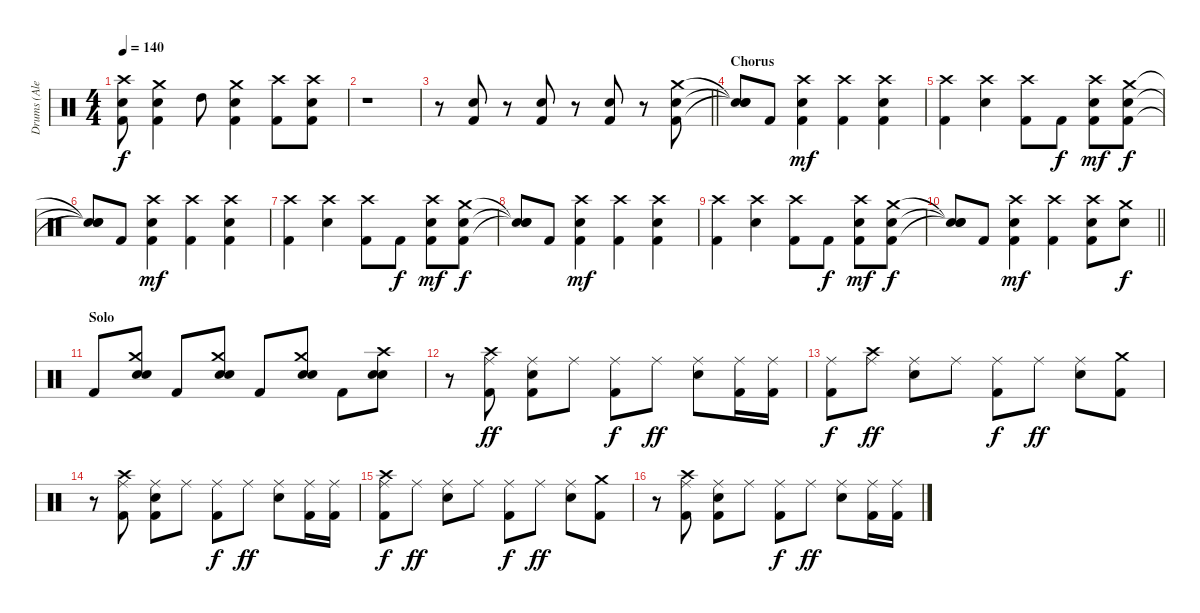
\track ("Drums (Alex Van Halen)" "Drums (Ale") {instrument percussion}
\staff {score}
\articulation defaults
\ts (4 4)
\tempo 140
\clef neutral
\ks c
("Crash high (hit)" "Snare (hit) 2" "Kick (hit) 2").8{dy f} ("Crash medium (hit)" "Snare (hit) 2" "Kick (hit) 2").4 "High Tom (hit)".8 ("Crash medium (hit)" "Snare (hit) 2" "Kick (hit) 2").4 ("Crash high (hit)" "Kick (hit) 2").8 ("Crash high (hit)" "Snare (hit) 2" "Kick (hit) 2").8 |
r.1 |
\barLineRight lightlight
r.8 ("Snare (hit) 2" "Kick (hit) 2").8 r.8 ("Snare (hit) 2" "Kick (hit) 2").8 r.8 ("Snare (hit) 2" "Kick (hit) 2").8 r.8 ("Crash medium (hit)" "Snare (hit) 2" "Kick (hit) 2").8 |
\section ("" "Chorus")
("Snare (hit)"{t} "Snare (hit)"{t} "Snare (hit)"{t}).8 "Kick (hit) 2".8 ("Crash high (hit)" "Electric Snare (hit)" "Kick (hit) 2").4{dy mf} ("Crash high (hit)" "Kick (hit) 2").4 ("Crash high (hit)" "Electric Snare (hit)" "Kick (hit) 2").4 |
("Crash high (hit)" "Kick (hit) 2").4 ("Crash high (hit)" "Electric Snare (hit)").4 ("Crash high (hit)" "Kick (hit) 2").8 "Kick (hit) 2".8{dy f} ("Crash high (hit)" "Snare (hit) 2" "Kick (hit) 2").8{dy mf} ("Crash medium (hit)" "Electric Snare (hit)" "Kick (hit) 2").8{dy f} |
("Snare (hit)"{t} "Snare (hit)"{t} "Snare (hit)"{t}).8 "Kick (hit) 2".8 ("Crash high (hit)" "Electric Snare (hit)" "Kick (hit) 2").4{dy mf} ("Crash high (hit)" "Kick (hit) 2").4 ("Crash high (hit)" "Electric Snare (hit)" "Kick (hit) 2").4 |
("Crash high (hit)" "Kick (hit) 2").4 ("Crash high (hit)" "Electric Snare (hit)").4 ("Crash high (hit)" "Kick (hit) 2").8 "Kick (hit) 2".8{dy f} ("Crash high (hit)" "Snare (hit) 2" "Kick (hit) 2").8{dy mf} ("Crash medium (hit)" "Electric Snare (hit)" "Kick (hit) 2").8{dy f} |
("Snare (hit)"{t} "Snare (hit)"{t} "Snare (hit)"{t}).8 "Kick (hit) 2".8 ("Crash high (hit)" "Electric Snare (hit)" "Kick (hit) 2").4{dy mf} ("Crash high (hit)" "Kick (hit) 2").4 ("Crash high (hit)" "Electric Snare (hit)" "Kick (hit) 2").4 |
("Crash high (hit)" "Kick (hit) 2").4 ("Crash high (hit)" "Electric Snare (hit)").4 ("Crash high (hit)" "Kick (hit) 2").8 "Kick (hit) 2".8{dy f} ("Crash high (hit)" "Snare (hit) 2" "Kick (hit) 2").8{dy mf} ("Crash medium (hit)" "Electric Snare (hit)" "Kick (hit) 2").8{dy f} |
\barLineRight lightlight
("Snare (hit)"{t} "Snare (hit)"{t} "Snare (hit)"{t}).8 "Kick (hit) 2".8 ("Crash high (hit)" "Electric Snare (hit)" "Kick (hit) 2").4{dy mf} ("Crash high (hit)" "Kick (hit) 2").4 ("Crash high (hit)" "Electric Snare (hit)" "Kick (hit) 2").8 ("Crash medium (hit)" "Electric Snare (hit)").8{dy f} |
\section ("" "Solo")
"Kick (hit) 2".8 ("Crash medium (hit)" "Electric Snare (hit)" "Snare (hit) 2").8 "Kick (hit) 2".8 ("Crash medium (hit)" "Electric Snare (hit)" "Snare (hit) 2").8 "Kick (hit) 2".8 ("Crash medium (hit)" "Electric Snare (hit)" "Snare (hit) 2").8 "Kick (hit) 2".8 ("Crash high (hit)" "Electric Snare (hit)" "Snare (hit) 2").8 |
r.8 ("Ride (middle)" "Kick (hit) 2" "Crash high (hit)").8{dy ff} ("Ride (middle)" "Electric Snare (hit)" "Kick (hit) 2").8 "Ride (middle)".8 ("Ride (middle)" "Kick (hit) 2").8{dy f} "Ride (middle)".8{dy ff} ("Ride (middle)" "Electric Snare (hit)").8 ("Ride (middle)" "Kick (hit) 2").16 ("Ride (middle)" "Kick (hit) 2").16 |
("Ride (middle)" "Kick (hit) 2").8{dy f} ("Ride (middle)" "Crash high (hit)").8{dy ff} ("Ride (middle)" "Electric Snare (hit)").8 "Ride (middle)".8 ("Ride (middle)" "Kick (hit) 2").8{dy f} "Ride (middle)".8{dy ff} ("Ride (middle)" "Electric Snare (hit)").8 ("Crash medium (hit)" "Kick (hit) 2").8 |
r.8 ("Ride (middle)" "Kick (hit) 2" "Crash high (hit)").8 ("Ride (middle)" "Electric Snare (hit)" "Kick (hit) 2").8 "Ride (middle)".8 ("Ride (middle)" "Kick (hit) 2").8{dy f} "Ride (middle)".8{dy ff} ("Ride (middle)" "Electric Snare (hit)").8 ("Ride (middle)" "Kick (hit) 2").16 ("Ride (middle)" "Kick (hit) 2").16 |
("Ride (middle)" "Kick (hit) 2" "Crash high (hit)").8{dy f} "Ride (middle)".8{dy ff} ("Ride (middle)" "Electric Snare (hit)").8 "Ride (middle)".8 ("Ride (middle)" "Kick (hit) 2").8{dy f} "Ride (middle)".8{dy ff} ("Ride (middle)" "Electric Snare (hit)").8 ("Crash medium (hit)" "Kick (hit) 2").8 |
r.8 ("Ride (middle)" "Kick (hit) 2" "Crash high (hit)").8 ("Ride (middle)" "Electric Snare (hit)" "Kick (hit) 2").8 "Ride (middle)".8 ("Ride (middle)" "Kick (hit) 2").8{dy f} "Ride (middle)".8{dy ff} ("Ride (middle)" "Electric Snare (hit)").8 ("Ride (middle)" "Kick (hit) 2").16 ("Ride (middle)" "Kick (hit) 2").16
